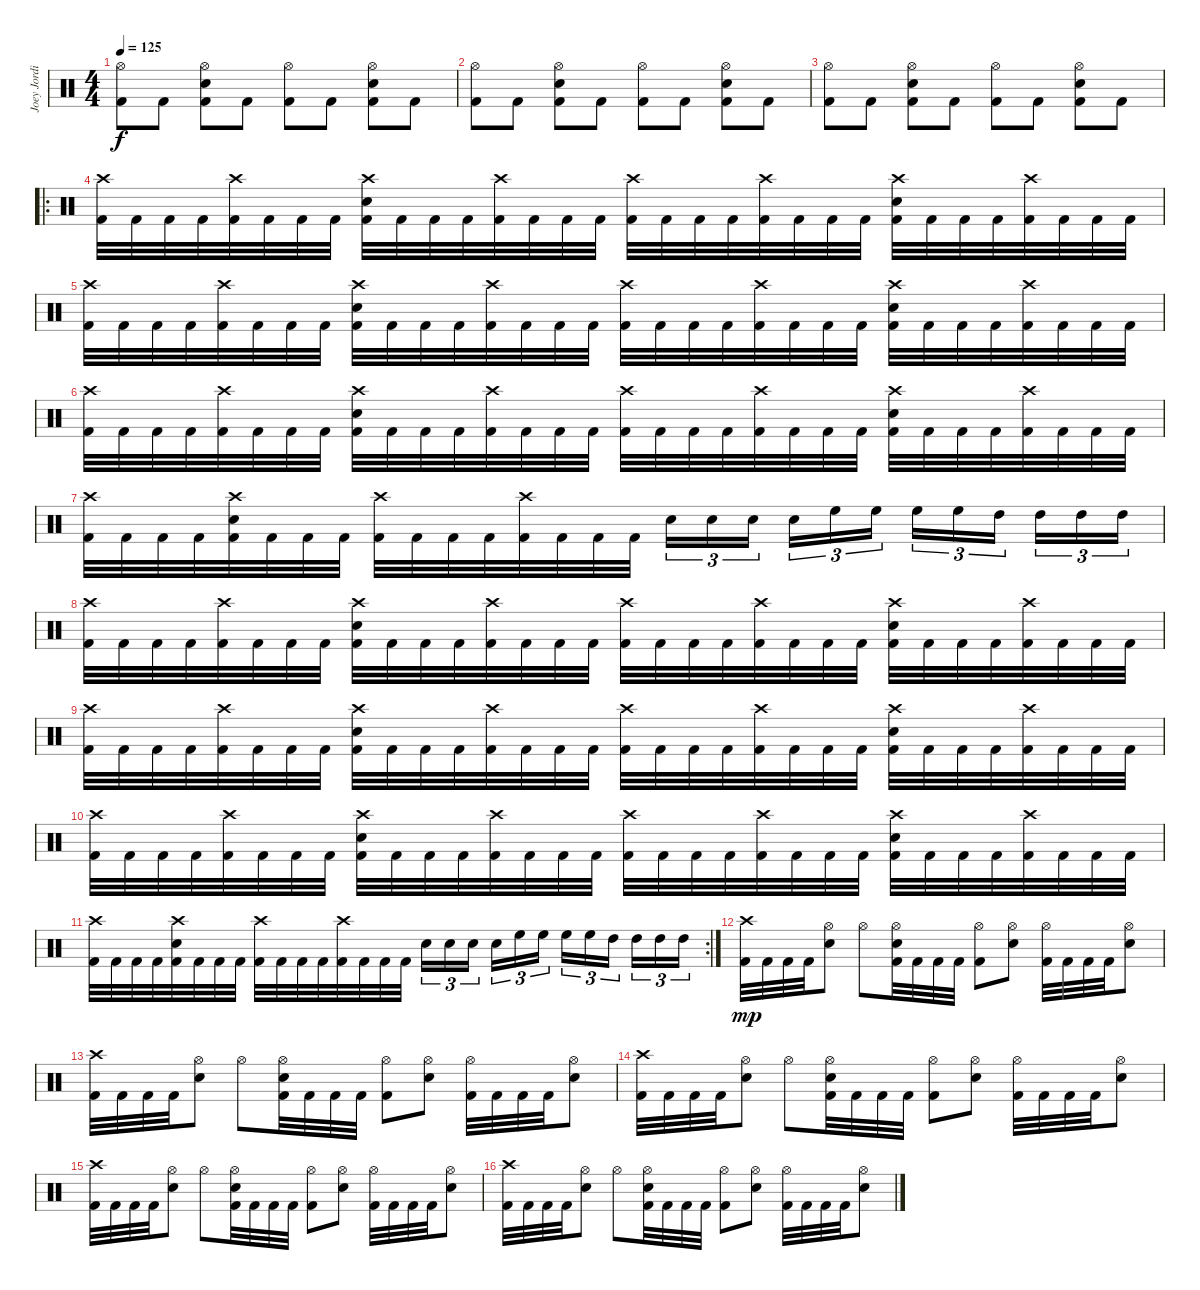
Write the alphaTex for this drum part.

\track ("Joey Jordison" "Joey Jordi") {instrument percussion}
\staff {score}
\articulation defaults
\ts (4 4)
\tempo 125
\clef neutral
\ks c
("Hi-Hat (open)" "Kick (hit) 2").8{dy f} "Kick (hit) 2".8 ("Hi-Hat (open)" "Electric Snare (hit)" "Kick (hit) 2").8 "Kick (hit) 2".8 ("Hi-Hat (open)" "Kick (hit) 2").8 "Kick (hit) 2".8 ("Hi-Hat (open)" "Electric Snare (hit)" "Kick (hit) 2").8 "Kick (hit) 2".8 |
("Hi-Hat (open)" "Kick (hit) 2").8 "Kick (hit) 2".8 ("Hi-Hat (open)" "Electric Snare (hit)" "Kick (hit) 2").8 "Kick (hit) 2".8 ("Hi-Hat (open)" "Kick (hit) 2").8 "Kick (hit) 2".8 ("Hi-Hat (open)" "Electric Snare (hit)" "Kick (hit) 2").8 "Kick (hit) 2".8 |
("Hi-Hat (open)" "Kick (hit) 2").8 "Kick (hit) 2".8 ("Hi-Hat (open)" "Electric Snare (hit)" "Kick (hit) 2").8 "Kick (hit) 2".8 ("Hi-Hat (open)" "Kick (hit) 2").8 "Kick (hit) 2".8 ("Hi-Hat (open)" "Electric Snare (hit)" "Kick (hit) 2").8 "Kick (hit) 2".8 |
\ro
("Crash high (hit)" "Kick (hit) 2").32 "Kick (hit) 2".32 "Kick (hit) 2".32 "Kick (hit) 2".32 ("Crash high (hit)" "Kick (hit) 2").32 "Kick (hit) 2".32 "Kick (hit) 2".32 "Kick (hit) 2".32 ("Crash high (hit)" "Electric Snare (hit)" "Kick (hit) 2").32 "Kick (hit) 2".32 "Kick (hit) 2".32 "Kick (hit) 2".32 ("Crash high (hit)" "Kick (hit) 2").32 "Kick (hit) 2".32 "Kick (hit) 2".32 "Kick (hit) 2".32 ("Crash high (hit)" "Kick (hit) 2").32 "Kick (hit) 2".32 "Kick (hit) 2".32 "Kick (hit) 2".32 ("Crash high (hit)" "Kick (hit) 2").32 "Kick (hit) 2".32 "Kick (hit) 2".32 "Kick (hit) 2".32 ("Crash high (hit)" "Electric Snare (hit)" "Kick (hit) 2").32 "Kick (hit) 2".32 "Kick (hit) 2".32 "Kick (hit) 2".32 ("Crash high (hit)" "Kick (hit) 2").32 "Kick (hit) 2".32 "Kick (hit) 2".32 "Kick (hit) 2".32 |
("Crash high (hit)" "Kick (hit) 2").32 "Kick (hit) 2".32 "Kick (hit) 2".32 "Kick (hit) 2".32 ("Crash high (hit)" "Kick (hit) 2").32 "Kick (hit) 2".32 "Kick (hit) 2".32 "Kick (hit) 2".32 ("Crash high (hit)" "Electric Snare (hit)" "Kick (hit) 2").32 "Kick (hit) 2".32 "Kick (hit) 2".32 "Kick (hit) 2".32 ("Crash high (hit)" "Kick (hit) 2").32 "Kick (hit) 2".32 "Kick (hit) 2".32 "Kick (hit) 2".32 ("Crash high (hit)" "Kick (hit) 2").32 "Kick (hit) 2".32 "Kick (hit) 2".32 "Kick (hit) 2".32 ("Crash high (hit)" "Kick (hit) 2").32 "Kick (hit) 2".32 "Kick (hit) 2".32 "Kick (hit) 2".32 ("Crash high (hit)" "Electric Snare (hit)" "Kick (hit) 2").32 "Kick (hit) 2".32 "Kick (hit) 2".32 "Kick (hit) 2".32 ("Crash high (hit)" "Kick (hit) 2").32 "Kick (hit) 2".32 "Kick (hit) 2".32 "Kick (hit) 2".32 |
("Crash high (hit)" "Kick (hit) 2").32 "Kick (hit) 2".32 "Kick (hit) 2".32 "Kick (hit) 2".32 ("Crash high (hit)" "Kick (hit) 2").32 "Kick (hit) 2".32 "Kick (hit) 2".32 "Kick (hit) 2".32 ("Crash high (hit)" "Electric Snare (hit)" "Kick (hit) 2").32 "Kick (hit) 2".32 "Kick (hit) 2".32 "Kick (hit) 2".32 ("Crash high (hit)" "Kick (hit) 2").32 "Kick (hit) 2".32 "Kick (hit) 2".32 "Kick (hit) 2".32 ("Crash high (hit)" "Kick (hit) 2").32 "Kick (hit) 2".32 "Kick (hit) 2".32 "Kick (hit) 2".32 ("Crash high (hit)" "Kick (hit) 2").32 "Kick (hit) 2".32 "Kick (hit) 2".32 "Kick (hit) 2".32 ("Crash high (hit)" "Electric Snare (hit)" "Kick (hit) 2").32 "Kick (hit) 2".32 "Kick (hit) 2".32 "Kick (hit) 2".32 ("Crash high (hit)" "Kick (hit) 2").32 "Kick (hit) 2".32 "Kick (hit) 2".32 "Kick (hit) 2".32 |
("Crash high (hit)" "Kick (hit) 2").32 "Kick (hit) 2".32 "Kick (hit) 2".32 "Kick (hit) 2".32 ("Crash high (hit)" "Electric Snare (hit)" "Kick (hit) 2").32 "Kick (hit) 2".32 "Kick (hit) 2".32 "Kick (hit) 2".32 ("Crash high (hit)" "Kick (hit) 2").32 "Kick (hit) 2".32 "Kick (hit) 2".32 "Kick (hit) 2".32 ("Crash high (hit)" "Kick (hit) 2").32 "Kick (hit) 2".32 "Kick (hit) 2".32 "Kick (hit) 2".32 "Electric Snare (hit)".16{tu (3 2)} "Electric Snare (hit)".16{tu (3 2)} "Electric Snare (hit)".16{tu (3 2) beam splitsecondary} "Electric Snare (hit)".16{tu (3 2)} "High Floor Tom (hit)".16{tu (3 2)} "High Floor Tom (hit)".16{tu (3 2)} "High Floor Tom (hit)".16{tu (3 2)} "High Floor Tom (hit)".16{tu (3 2)} "High Tom (hit)".16{tu (3 2) beam splitsecondary} "High Tom (hit)".16{tu (3 2)} "High Tom (hit)".16{tu (3 2)} "High Tom (hit)".16{tu (3 2)} |
("Crash high (hit)" "Kick (hit) 2").32 "Kick (hit) 2".32 "Kick (hit) 2".32 "Kick (hit) 2".32 ("Crash high (hit)" "Kick (hit) 2").32 "Kick (hit) 2".32 "Kick (hit) 2".32 "Kick (hit) 2".32 ("Crash high (hit)" "Electric Snare (hit)" "Kick (hit) 2").32 "Kick (hit) 2".32 "Kick (hit) 2".32 "Kick (hit) 2".32 ("Crash high (hit)" "Kick (hit) 2").32 "Kick (hit) 2".32 "Kick (hit) 2".32 "Kick (hit) 2".32 ("Crash high (hit)" "Kick (hit) 2").32 "Kick (hit) 2".32 "Kick (hit) 2".32 "Kick (hit) 2".32 ("Crash high (hit)" "Kick (hit) 2").32 "Kick (hit) 2".32 "Kick (hit) 2".32 "Kick (hit) 2".32 ("Crash high (hit)" "Electric Snare (hit)" "Kick (hit) 2").32 "Kick (hit) 2".32 "Kick (hit) 2".32 "Kick (hit) 2".32 ("Crash high (hit)" "Kick (hit) 2").32 "Kick (hit) 2".32 "Kick (hit) 2".32 "Kick (hit) 2".32 |
("Crash high (hit)" "Kick (hit) 2").32 "Kick (hit) 2".32 "Kick (hit) 2".32 "Kick (hit) 2".32 ("Crash high (hit)" "Kick (hit) 2").32 "Kick (hit) 2".32 "Kick (hit) 2".32 "Kick (hit) 2".32 ("Crash high (hit)" "Electric Snare (hit)" "Kick (hit) 2").32 "Kick (hit) 2".32 "Kick (hit) 2".32 "Kick (hit) 2".32 ("Crash high (hit)" "Kick (hit) 2").32 "Kick (hit) 2".32 "Kick (hit) 2".32 "Kick (hit) 2".32 ("Crash high (hit)" "Kick (hit) 2").32 "Kick (hit) 2".32 "Kick (hit) 2".32 "Kick (hit) 2".32 ("Crash high (hit)" "Kick (hit) 2").32 "Kick (hit) 2".32 "Kick (hit) 2".32 "Kick (hit) 2".32 ("Crash high (hit)" "Electric Snare (hit)" "Kick (hit) 2").32 "Kick (hit) 2".32 "Kick (hit) 2".32 "Kick (hit) 2".32 ("Crash high (hit)" "Kick (hit) 2").32 "Kick (hit) 2".32 "Kick (hit) 2".32 "Kick (hit) 2".32 |
("Crash high (hit)" "Kick (hit) 2").32 "Kick (hit) 2".32 "Kick (hit) 2".32 "Kick (hit) 2".32 ("Crash high (hit)" "Kick (hit) 2").32 "Kick (hit) 2".32 "Kick (hit) 2".32 "Kick (hit) 2".32 ("Crash high (hit)" "Electric Snare (hit)" "Kick (hit) 2").32 "Kick (hit) 2".32 "Kick (hit) 2".32 "Kick (hit) 2".32 ("Crash high (hit)" "Kick (hit) 2").32 "Kick (hit) 2".32 "Kick (hit) 2".32 "Kick (hit) 2".32 ("Crash high (hit)" "Kick (hit) 2").32 "Kick (hit) 2".32 "Kick (hit) 2".32 "Kick (hit) 2".32 ("Crash high (hit)" "Kick (hit) 2").32 "Kick (hit) 2".32 "Kick (hit) 2".32 "Kick (hit) 2".32 ("Crash high (hit)" "Electric Snare (hit)" "Kick (hit) 2").32 "Kick (hit) 2".32 "Kick (hit) 2".32 "Kick (hit) 2".32 ("Crash high (hit)" "Kick (hit) 2").32 "Kick (hit) 2".32 "Kick (hit) 2".32 "Kick (hit) 2".32 |
\rc 2
("Crash high (hit)" "Kick (hit) 2").32 "Kick (hit) 2".32 "Kick (hit) 2".32 "Kick (hit) 2".32 ("Crash high (hit)" "Electric Snare (hit)" "Kick (hit) 2").32 "Kick (hit) 2".32 "Kick (hit) 2".32 "Kick (hit) 2".32 ("Crash high (hit)" "Kick (hit) 2").32 "Kick (hit) 2".32 "Kick (hit) 2".32 "Kick (hit) 2".32 ("Crash high (hit)" "Kick (hit) 2").32 "Kick (hit) 2".32 "Kick (hit) 2".32 "Kick (hit) 2".32 "Electric Snare (hit)".16{tu (3 2)} "Electric Snare (hit)".16{tu (3 2)} "Electric Snare (hit)".16{tu (3 2) beam splitsecondary} "Electric Snare (hit)".16{tu (3 2)} "High Floor Tom (hit)".16{tu (3 2)} "High Floor Tom (hit)".16{tu (3 2)} "High Floor Tom (hit)".16{tu (3 2)} "High Floor Tom (hit)".16{tu (3 2)} "High Tom (hit)".16{tu (3 2) beam splitsecondary} "High Tom (hit)".16{tu (3 2)} "High Tom (hit)".16{tu (3 2)} "High Tom (hit)".16{tu (3 2)} |
("Crash high (hit)" "Kick (hit) 2").32{dy mp} "Kick (hit) 2".32 "Kick (hit) 2".32 "Kick (hit) 2".32 ("Hi-Hat (open)" "Electric Snare (hit)").8 "Hi-Hat (open)".8 ("Hi-Hat (open)" "Electric Snare (hit)" "Kick (hit) 2").32 "Kick (hit) 2".32 "Kick (hit) 2".32 "Kick (hit) 2".32 ("Hi-Hat (open)" "Kick (hit) 2").8 ("Hi-Hat (open)" "Electric Snare (hit)").8 ("Hi-Hat (open)" "Kick (hit) 2").32 "Kick (hit) 2".32 "Kick (hit) 2".32 "Kick (hit) 2".32 ("Hi-Hat (open)" "Electric Snare (hit)").8 |
("Crash high (hit)" "Kick (hit) 2").32 "Kick (hit) 2".32 "Kick (hit) 2".32 "Kick (hit) 2".32 ("Hi-Hat (open)" "Electric Snare (hit)").8 "Hi-Hat (open)".8 ("Hi-Hat (open)" "Electric Snare (hit)" "Kick (hit) 2").32 "Kick (hit) 2".32 "Kick (hit) 2".32 "Kick (hit) 2".32 ("Hi-Hat (open)" "Kick (hit) 2").8 ("Hi-Hat (open)" "Electric Snare (hit)").8 ("Hi-Hat (open)" "Kick (hit) 2").32 "Kick (hit) 2".32 "Kick (hit) 2".32 "Kick (hit) 2".32 ("Hi-Hat (open)" "Electric Snare (hit)").8 |
("Crash high (hit)" "Kick (hit) 2").32 "Kick (hit) 2".32 "Kick (hit) 2".32 "Kick (hit) 2".32 ("Hi-Hat (open)" "Electric Snare (hit)").8 "Hi-Hat (open)".8 ("Hi-Hat (open)" "Electric Snare (hit)" "Kick (hit) 2").32 "Kick (hit) 2".32 "Kick (hit) 2".32 "Kick (hit) 2".32 ("Hi-Hat (open)" "Kick (hit) 2").8 ("Hi-Hat (open)" "Electric Snare (hit)").8 ("Hi-Hat (open)" "Kick (hit) 2").32 "Kick (hit) 2".32 "Kick (hit) 2".32 "Kick (hit) 2".32 ("Hi-Hat (open)" "Electric Snare (hit)").8 |
("Crash high (hit)" "Kick (hit) 2").32 "Kick (hit) 2".32 "Kick (hit) 2".32 "Kick (hit) 2".32 ("Hi-Hat (open)" "Electric Snare (hit)").8 "Hi-Hat (open)".8 ("Hi-Hat (open)" "Electric Snare (hit)" "Kick (hit) 2").32 "Kick (hit) 2".32 "Kick (hit) 2".32 "Kick (hit) 2".32 ("Hi-Hat (open)" "Kick (hit) 2").8 ("Hi-Hat (open)" "Electric Snare (hit)").8 ("Hi-Hat (open)" "Kick (hit) 2").32 "Kick (hit) 2".32 "Kick (hit) 2".32 "Kick (hit) 2".32 ("Hi-Hat (open)" "Electric Snare (hit)").8 |
("Crash high (hit)" "Kick (hit) 2").32 "Kick (hit) 2".32 "Kick (hit) 2".32 "Kick (hit) 2".32 ("Hi-Hat (open)" "Electric Snare (hit)").8 "Hi-Hat (open)".8 ("Hi-Hat (open)" "Electric Snare (hit)" "Kick (hit) 2").32 "Kick (hit) 2".32 "Kick (hit) 2".32 "Kick (hit) 2".32 ("Hi-Hat (open)" "Kick (hit) 2").8 ("Hi-Hat (open)" "Electric Snare (hit)").8 ("Hi-Hat (open)" "Kick (hit) 2").32 "Kick (hit) 2".32 "Kick (hit) 2".32 "Kick (hit) 2".32 ("Hi-Hat (open)" "Electric Snare (hit)").8
